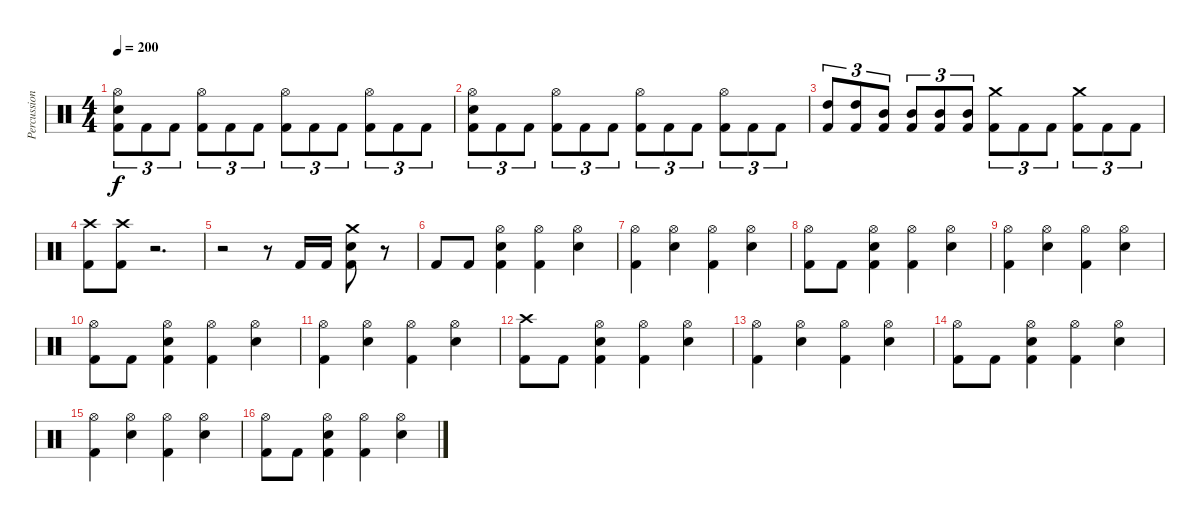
\track ("Percussion" "Percussion") {instrument percussion}
\staff {score}
\articulation defaults
\ts (4 4)
\tempo 200
\clef neutral
\ks c
("Hi-Hat (open)" "Snare (hit) 2" "Kick (hit) 2").8{tu (3 2) dy f} "Kick (hit) 2".8{tu (3 2)} "Kick (hit) 2".8{tu (3 2)} ("Hi-Hat (open)" "Kick (hit) 2").8{tu (3 2)} "Kick (hit) 2".8{tu (3 2)} "Kick (hit) 2".8{tu (3 2)} ("Hi-Hat (open)" "Kick (hit) 2").8{tu (3 2)} "Kick (hit) 2".8{tu (3 2)} "Kick (hit) 2".8{tu (3 2)} ("Hi-Hat (open)" "Kick (hit) 2").8{tu (3 2)} "Kick (hit) 2".8{tu (3 2)} "Kick (hit) 2".8{tu (3 2)} |
("Hi-Hat (open)" "Snare (hit) 2" "Kick (hit) 2").8{tu (3 2)} "Kick (hit) 2".8{tu (3 2)} "Kick (hit) 2".8{tu (3 2)} ("Hi-Hat (open)" "Kick (hit) 2").8{tu (3 2)} "Kick (hit) 2".8{tu (3 2)} "Kick (hit) 2".8{tu (3 2)} ("Hi-Hat (open)" "Kick (hit) 2").8{tu (3 2)} "Kick (hit) 2".8{tu (3 2)} "Kick (hit) 2".8{tu (3 2)} ("Hi-Hat (open)" "Kick (hit) 2").8{tu (3 2)} "Kick (hit) 2".8{tu (3 2)} "Kick (hit) 2".8{tu (3 2)} |
("High Tom (hit)" "Kick (hit) 2").8{tu (3 2)} ("High Tom (hit)" "Kick (hit) 2").8{tu (3 2)} ("Mid Tom (hit)" "Kick (hit) 2").8{tu (3 2)} ("Mid Tom (hit)" "Kick (hit) 2").8{tu (3 2)} ("Mid Tom (hit)" "Kick (hit) 2").8{tu (3 2)} ("Mid Tom (hit)" "Kick (hit) 2").8{tu (3 2)} ("Crash medium (hit)" "Kick (hit) 2").8{tu (3 2)} "Kick (hit) 2".8{tu (3 2)} "Kick (hit) 2".8{tu (3 2)} ("Crash medium (hit)" "Kick (hit) 2").8{tu (3 2)} "Kick (hit) 2".8{tu (3 2)} "Kick (hit) 2".8{tu (3 2)} |
("Crash high (hit)" "Kick (hit) 2").8 ("Crash high (hit)" "Kick (hit) 2").8 r.2{d} |
r.2 r.8 "Kick (hit) 2".16 "Kick (hit) 2".16 ("Crash medium (hit)" "Snare (hit) 2" "Kick (hit) 2").8 r.8 |
"Kick (hit) 2".8 "Kick (hit) 2".8 ("Hi-Hat (open)" "Snare (hit) 2" "Kick (hit) 2").4 ("Hi-Hat (open)" "Kick (hit) 2").4 ("Hi-Hat (open)" "Snare (hit) 2").4 |
("Hi-Hat (open)" "Kick (hit) 2").4 ("Hi-Hat (open)" "Snare (hit) 2").4 ("Hi-Hat (open)" "Kick (hit) 2").4 ("Hi-Hat (open)" "Snare (hit) 2").4 |
("Hi-Hat (open)" "Kick (hit) 2").8 "Kick (hit) 2".8 ("Hi-Hat (open)" "Snare (hit) 2" "Kick (hit) 2").4 ("Hi-Hat (open)" "Kick (hit) 2").4 ("Hi-Hat (open)" "Snare (hit) 2").4 |
("Hi-Hat (open)" "Kick (hit) 2").4 ("Hi-Hat (open)" "Snare (hit) 2").4 ("Hi-Hat (open)" "Kick (hit) 2").4 ("Hi-Hat (open)" "Snare (hit) 2").4 |
("Hi-Hat (open)" "Kick (hit) 2").8 "Kick (hit) 2".8 ("Hi-Hat (open)" "Snare (hit) 2" "Kick (hit) 2").4 ("Hi-Hat (open)" "Kick (hit) 2").4 ("Hi-Hat (open)" "Snare (hit) 2").4 |
("Hi-Hat (open)" "Kick (hit) 2").4 ("Hi-Hat (open)" "Snare (hit) 2").4 ("Hi-Hat (open)" "Kick (hit) 2").4 ("Hi-Hat (open)" "Snare (hit) 2").4 |
("Crash high (hit)" "Kick (hit) 2").8 "Kick (hit) 2".8 ("Hi-Hat (open)" "Snare (hit) 2" "Kick (hit) 2").4 ("Hi-Hat (open)" "Kick (hit) 2").4 ("Hi-Hat (open)" "Snare (hit) 2").4 |
("Hi-Hat (open)" "Kick (hit) 2").4 ("Hi-Hat (open)" "Snare (hit) 2").4 ("Hi-Hat (open)" "Kick (hit) 2").4 ("Hi-Hat (open)" "Snare (hit) 2").4 |
("Hi-Hat (open)" "Kick (hit) 2").8 "Kick (hit) 2".8 ("Hi-Hat (open)" "Snare (hit) 2" "Kick (hit) 2").4 ("Hi-Hat (open)" "Kick (hit) 2").4 ("Hi-Hat (open)" "Snare (hit) 2").4 |
("Hi-Hat (open)" "Kick (hit) 2").4 ("Hi-Hat (open)" "Snare (hit) 2").4 ("Hi-Hat (open)" "Kick (hit) 2").4 ("Hi-Hat (open)" "Snare (hit) 2").4 |
("Hi-Hat (open)" "Kick (hit) 2").8 "Kick (hit) 2".8 ("Hi-Hat (open)" "Snare (hit) 2" "Kick (hit) 2").4 ("Hi-Hat (open)" "Kick (hit) 2").4 ("Hi-Hat (open)" "Snare (hit) 2").4
